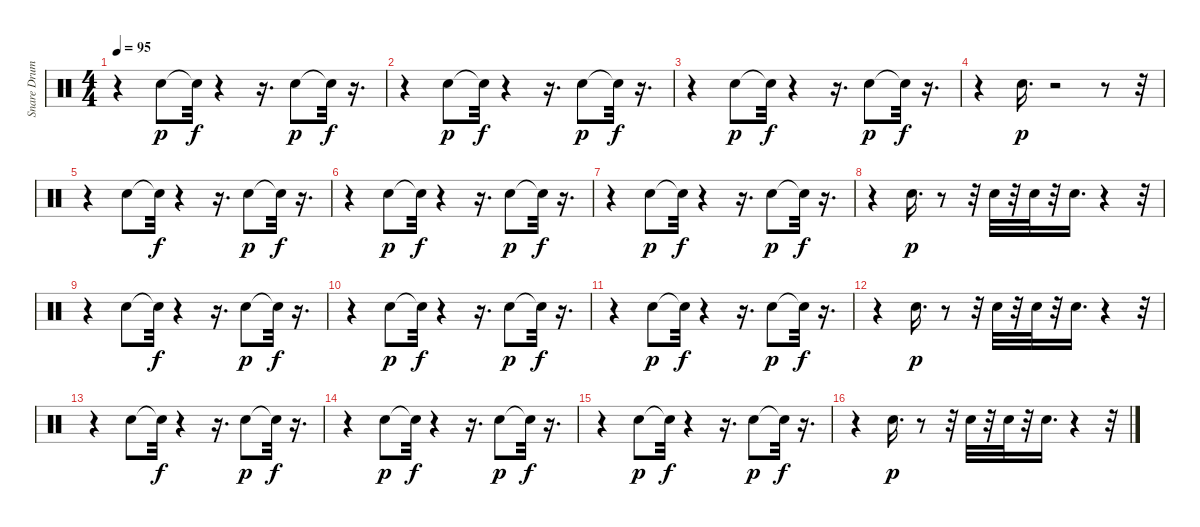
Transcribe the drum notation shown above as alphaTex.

\track ("Snare Drum" "Snare Drum") {instrument percussion}
\staff {score}
\articulation defaults
\ts (4 4)
\tempo 95
\clef neutral
\ks c
r.4{dy p} "Snare (hit) 2".8 "Snare (hit)"{t}.32{dy f} r.4 r.16{d} "Snare (hit) 2".8{dy p} "Snare (hit)"{t}.32{dy f} r.16{d} |
r.4 "Snare (hit) 2".8{dy p} "Snare (hit)"{t}.32{dy f} r.4 r.16{d} "Snare (hit) 2".8{dy p} "Snare (hit)"{t}.32{dy f} r.16{d} |
r.4 "Snare (hit) 2".8{dy p} "Snare (hit)"{t}.32{dy f} r.4 r.16{d} "Snare (hit) 2".8{dy p} "Snare (hit)"{t}.32{dy f} r.16{d} |
r.4 "Snare (hit) 2".16{d dy p} r.2 r.8 r.32 |
r.4 "Snare (hit) 2".8 "Snare (hit)"{t}.32{dy f} r.4 r.16{d} "Snare (hit) 2".8{dy p} "Snare (hit)"{t}.32{dy f} r.16{d} |
r.4 "Snare (hit) 2".8{dy p} "Snare (hit)"{t}.32{dy f} r.4 r.16{d} "Snare (hit) 2".8{dy p} "Snare (hit)"{t}.32{dy f} r.16{d} |
r.4 "Snare (hit) 2".8{dy p} "Snare (hit)"{t}.32{dy f} r.4 r.16{d} "Snare (hit) 2".8{dy p} "Snare (hit)"{t}.32{dy f} r.16{d} |
r.4 "Snare (hit) 2".16{d dy p} r.8 r.32 "Snare (hit) 2".32 r.32 "Snare (hit) 2".32 r.32 "Snare (hit) 2".16{d} r.4 r.32 |
r.4 "Snare (hit) 2".8 "Snare (hit)"{t}.32{dy f} r.4 r.16{d} "Snare (hit) 2".8{dy p} "Snare (hit)"{t}.32{dy f} r.16{d} |
r.4 "Snare (hit) 2".8{dy p} "Snare (hit)"{t}.32{dy f} r.4 r.16{d} "Snare (hit) 2".8{dy p} "Snare (hit)"{t}.32{dy f} r.16{d} |
r.4 "Snare (hit) 2".8{dy p} "Snare (hit)"{t}.32{dy f} r.4 r.16{d} "Snare (hit) 2".8{dy p} "Snare (hit)"{t}.32{dy f} r.16{d} |
r.4 "Snare (hit) 2".16{d dy p} r.8 r.32 "Snare (hit) 2".32 r.32 "Snare (hit) 2".32 r.32 "Snare (hit) 2".16{d} r.4 r.32 |
r.4 "Snare (hit) 2".8 "Snare (hit)"{t}.32{dy f} r.4 r.16{d} "Snare (hit) 2".8{dy p} "Snare (hit)"{t}.32{dy f} r.16{d} |
r.4 "Snare (hit) 2".8{dy p} "Snare (hit)"{t}.32{dy f} r.4 r.16{d} "Snare (hit) 2".8{dy p} "Snare (hit)"{t}.32{dy f} r.16{d} |
r.4 "Snare (hit) 2".8{dy p} "Snare (hit)"{t}.32{dy f} r.4 r.16{d} "Snare (hit) 2".8{dy p} "Snare (hit)"{t}.32{dy f} r.16{d} |
r.4 "Snare (hit) 2".16{d dy p} r.8 r.32 "Snare (hit) 2".32 r.32 "Snare (hit) 2".32 r.32 "Snare (hit) 2".16{d} r.4 r.32
